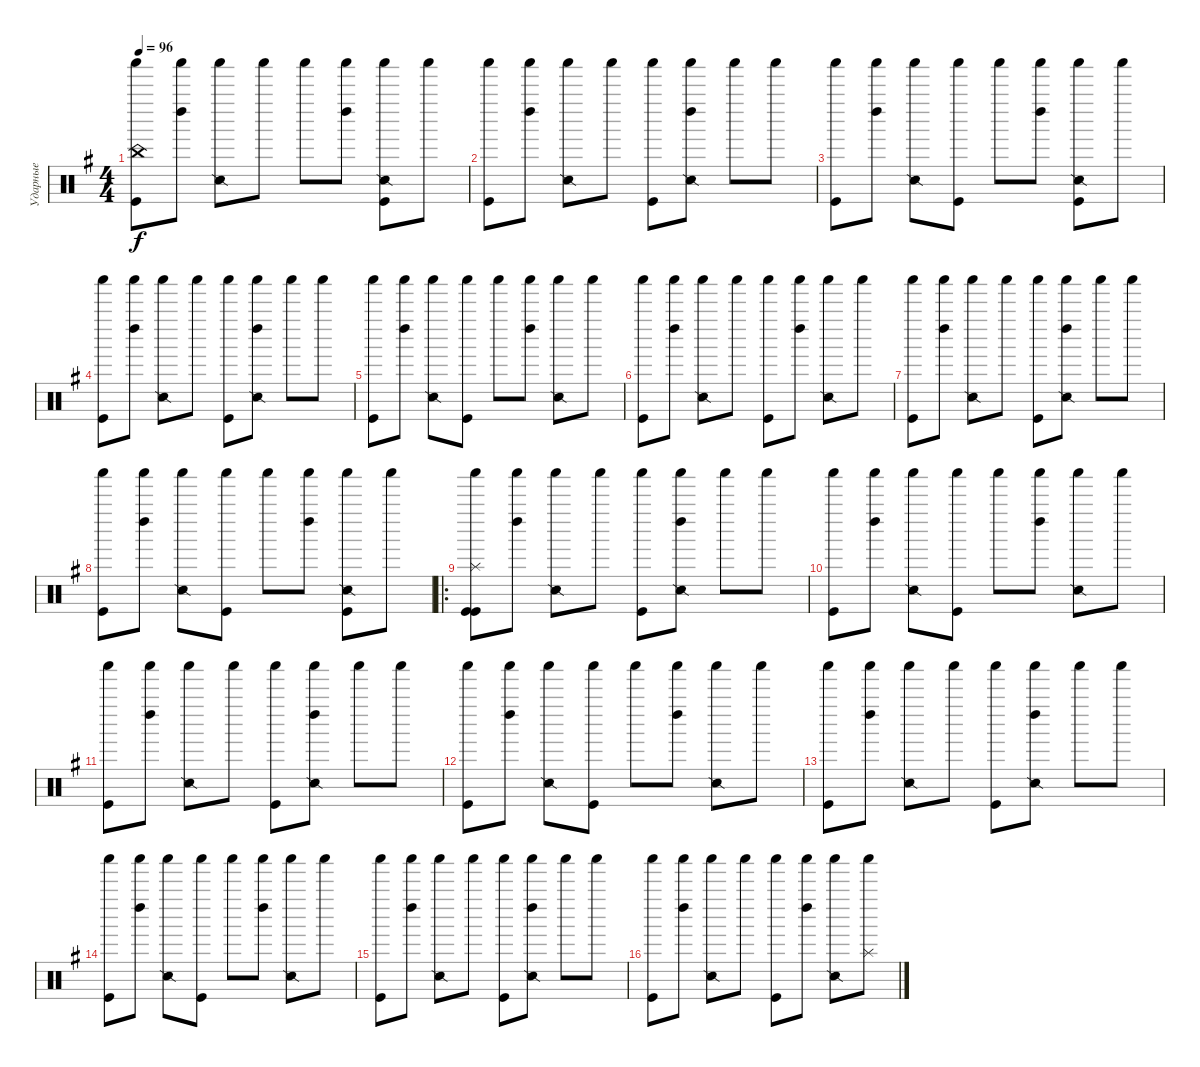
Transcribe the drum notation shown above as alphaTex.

\track ("Ударные" "Ударные") {instrument percussion}
\staff {score}
\articulation defaults
\ts (4 4)
\tempo 96
\clef neutral
\ks eminor
("Shaker (hit)" "China (hit)" "Kick (hit)").8{dy f} ("Shaker (hit)" "Left Maraca (hit)").8 ("Shaker (hit)" "Snare (side stick) 2").8 "Shaker (hit)".8 "Shaker (hit)".8 ("Shaker (hit)" "Left Maraca (hit)").8 ("Shaker (hit)" "Snare (side stick) 2" "Kick (hit)").8 "Shaker (hit)".8 |
("Shaker (hit)" "Kick (hit)").8 ("Shaker (hit)" "Left Maraca (hit)").8 ("Shaker (hit)" "Snare (side stick) 2").8 "Shaker (hit)".8 ("Shaker (hit)" "Kick (hit)").8 ("Shaker (hit)" "Snare (side stick) 2" "Left Maraca (hit)").8 "Shaker (hit)".8 "Shaker (hit)".8 |
("Shaker (hit)" "Kick (hit)").8 ("Shaker (hit)" "Left Maraca (hit)").8 ("Shaker (hit)" "Snare (side stick) 2").8 ("Shaker (hit)" "Kick (hit)").8 "Shaker (hit)".8 ("Shaker (hit)" "Left Maraca (hit)").8 ("Shaker (hit)" "Snare (side stick) 2" "Kick (hit)").8 "Shaker (hit)".8 |
("Shaker (hit)" "Kick (hit)").8 ("Shaker (hit)" "Left Maraca (hit)").8 ("Shaker (hit)" "Snare (side stick) 2").8 "Shaker (hit)".8 ("Shaker (hit)" "Kick (hit)").8 ("Shaker (hit)" "Snare (side stick) 2" "Left Maraca (hit)").8 "Shaker (hit)".8 "Shaker (hit)".8 |
("Shaker (hit)" "Kick (hit)").8 ("Shaker (hit)" "Left Maraca (hit)").8 ("Shaker (hit)" "Snare (side stick) 2").8 ("Shaker (hit)" "Kick (hit)").8 "Shaker (hit)".8 ("Shaker (hit)" "Left Maraca (hit)").8 ("Shaker (hit)" "Snare (side stick) 2").8 "Shaker (hit)".8 |
("Shaker (hit)" "Kick (hit)").8 ("Shaker (hit)" "Left Maraca (hit)").8 ("Shaker (hit)" "Snare (side stick) 2").8 "Shaker (hit)".8 ("Shaker (hit)" "Kick (hit)").8 ("Shaker (hit)" "Left Maraca (hit)").8 ("Shaker (hit)" "Snare (side stick) 2").8 "Shaker (hit)".8 |
("Shaker (hit)" "Kick (hit)").8 ("Shaker (hit)" "Left Maraca (hit)").8 ("Shaker (hit)" "Snare (side stick) 2").8 "Shaker (hit)".8 ("Shaker (hit)" "Kick (hit)").8 ("Shaker (hit)" "Snare (side stick) 2" "Left Maraca (hit)").8 "Shaker (hit)".8 "Shaker (hit)".8 |
("Shaker (hit)" "Kick (hit)").8 ("Shaker (hit)" "Left Maraca (hit)").8 ("Shaker (hit)" "Snare (side stick) 2").8 ("Shaker (hit)" "Kick (hit)").8 "Shaker (hit)".8 ("Shaker (hit)" "Left Maraca (hit)").8 ("Shaker (hit)" "Snare (side stick) 2" "Kick (hit)").8 "Shaker (hit)".8 |
\ro
("Shaker (hit)" "Splash (hit)" "Kick (hit)" "Kick (hit)").8 ("Shaker (hit)" "Left Maraca (hit)").8 ("Shaker (hit)" "Snare (side stick) 2").8 "Shaker (hit)".8 ("Shaker (hit)" "Kick (hit)").8 ("Shaker (hit)" "Snare (side stick) 2" "Left Maraca (hit)").8 "Shaker (hit)".8 "Shaker (hit)".8 |
("Shaker (hit)" "Kick (hit)").8 ("Shaker (hit)" "Left Maraca (hit)").8 ("Shaker (hit)" "Snare (side stick) 2").8 ("Shaker (hit)" "Kick (hit)").8 "Shaker (hit)".8 ("Shaker (hit)" "Left Maraca (hit)").8 ("Shaker (hit)" "Snare (side stick) 2").8 "Shaker (hit)".8 |
("Shaker (hit)" "Kick (hit)").8 ("Shaker (hit)" "Left Maraca (hit)").8 ("Shaker (hit)" "Snare (side stick) 2").8 "Shaker (hit)".8 ("Shaker (hit)" "Kick (hit)").8 ("Shaker (hit)" "Snare (side stick) 2" "Left Maraca (hit)").8 "Shaker (hit)".8 "Shaker (hit)".8 |
("Shaker (hit)" "Kick (hit)").8 ("Shaker (hit)" "Left Maraca (hit)").8 ("Shaker (hit)" "Snare (side stick) 2").8 ("Shaker (hit)" "Kick (hit)").8 "Shaker (hit)".8 ("Shaker (hit)" "Left Maraca (hit)").8 ("Shaker (hit)" "Snare (side stick) 2").8 "Shaker (hit)".8 |
("Shaker (hit)" "Kick (hit)").8 ("Shaker (hit)" "Left Maraca (hit)").8 ("Shaker (hit)" "Snare (side stick) 2").8 "Shaker (hit)".8 ("Shaker (hit)" "Kick (hit)").8 ("Shaker (hit)" "Snare (side stick) 2" "Left Maraca (hit)").8 "Shaker (hit)".8 "Shaker (hit)".8 |
("Shaker (hit)" "Kick (hit)").8 ("Shaker (hit)" "Left Maraca (hit)").8 ("Shaker (hit)" "Snare (side stick) 2").8 ("Shaker (hit)" "Kick (hit)").8 "Shaker (hit)".8 ("Shaker (hit)" "Left Maraca (hit)").8 ("Shaker (hit)" "Snare (side stick) 2").8 "Shaker (hit)".8 |
("Shaker (hit)" "Kick (hit)").8 ("Shaker (hit)" "Left Maraca (hit)").8 ("Shaker (hit)" "Snare (side stick) 2").8 "Shaker (hit)".8 ("Shaker (hit)" "Kick (hit)").8 ("Shaker (hit)" "Snare (side stick) 2" "Left Maraca (hit)").8 "Shaker (hit)".8 "Shaker (hit)".8 |
("Shaker (hit)" "Kick (hit)").8 ("Shaker (hit)" "Left Maraca (hit)").8 ("Shaker (hit)" "Snare (side stick) 2").8 "Shaker (hit)".8 ("Shaker (hit)" "Kick (hit)").8 ("Shaker (hit)" "Left Maraca (hit)").8 ("Shaker (hit)" "Snare (side stick) 2").8 ("Shaker (hit)" "Splash (hit)").8
